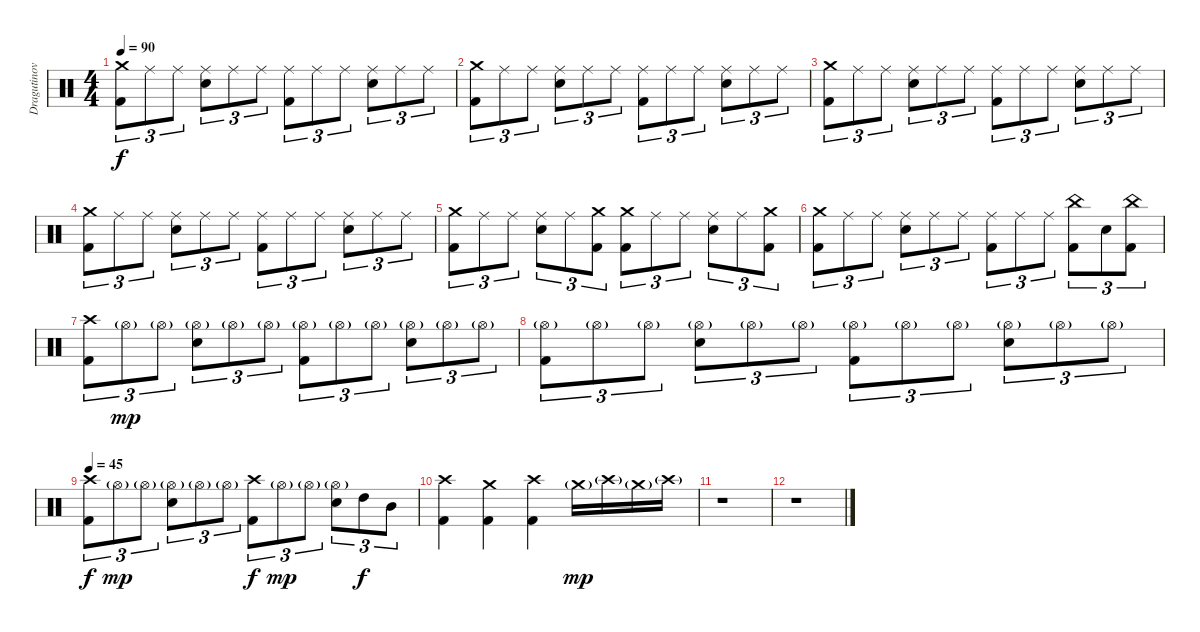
\track ("Dragutinovic" "Dragutinov") {instrument percussion}
\staff {score}
\articulation defaults
\ts (4 4)
\tempo 90
\clef neutral
\ks c
("Crash medium (hit)" "Kick (hit) 2").8{tu (3 2) dy f} "Ride (middle)".8{tu (3 2)} "Ride (middle)".8{tu (3 2)} ("Ride (middle)" "Electric Snare (hit)").8{tu (3 2)} "Ride (middle)".8{tu (3 2)} "Ride (middle)".8{tu (3 2)} ("Ride (middle)" "Kick (hit) 2").8{tu (3 2)} "Ride (middle)".8{tu (3 2)} "Ride (middle)".8{tu (3 2)} ("Ride (middle)" "Electric Snare (hit)").8{tu (3 2)} "Ride (middle)".8{tu (3 2)} "Ride (middle)".8{tu (3 2)} |
("Crash medium (hit)" "Kick (hit) 2").8{tu (3 2)} "Ride (middle)".8{tu (3 2)} "Ride (middle)".8{tu (3 2)} ("Ride (middle)" "Electric Snare (hit)").8{tu (3 2)} "Ride (middle)".8{tu (3 2)} "Ride (middle)".8{tu (3 2)} ("Ride (middle)" "Kick (hit) 2").8{tu (3 2)} "Ride (middle)".8{tu (3 2)} "Ride (middle)".8{tu (3 2)} ("Ride (middle)" "Electric Snare (hit)").8{tu (3 2)} "Ride (middle)".8{tu (3 2)} "Ride (middle)".8{tu (3 2)} |
("Crash medium (hit)" "Kick (hit) 2").8{tu (3 2)} "Ride (middle)".8{tu (3 2)} "Ride (middle)".8{tu (3 2)} ("Ride (middle)" "Electric Snare (hit)").8{tu (3 2)} "Ride (middle)".8{tu (3 2)} "Ride (middle)".8{tu (3 2)} ("Ride (middle)" "Kick (hit) 2").8{tu (3 2)} "Ride (middle)".8{tu (3 2)} "Ride (middle)".8{tu (3 2)} ("Ride (middle)" "Electric Snare (hit)").8{tu (3 2)} "Ride (middle)".8{tu (3 2)} "Ride (middle)".8{tu (3 2)} |
("Crash medium (hit)" "Kick (hit) 2").8{tu (3 2)} "Ride (middle)".8{tu (3 2)} "Ride (middle)".8{tu (3 2)} ("Ride (middle)" "Electric Snare (hit)").8{tu (3 2)} "Ride (middle)".8{tu (3 2)} "Ride (middle)".8{tu (3 2)} ("Ride (middle)" "Kick (hit) 2").8{tu (3 2)} "Ride (middle)".8{tu (3 2)} "Ride (middle)".8{tu (3 2)} ("Ride (middle)" "Electric Snare (hit)").8{tu (3 2)} "Ride (middle)".8{tu (3 2)} "Ride (middle)".8{tu (3 2)} |
("Crash medium (hit)" "Kick (hit) 2").8{tu (3 2)} "Ride (middle)".8{tu (3 2)} "Ride (middle)".8{tu (3 2)} ("Ride (middle)" "Electric Snare (hit)").8{tu (3 2)} "Ride (middle)".8{tu (3 2)} ("Crash medium (hit)" "Kick (hit) 2").8{tu (3 2)} ("Crash medium (hit)" "Kick (hit) 2").8{tu (3 2)} "Ride (middle)".8{tu (3 2)} "Ride (middle)".8{tu (3 2)} ("Ride (middle)" "Electric Snare (hit)").8{tu (3 2)} "Ride (middle)".8{tu (3 2)} ("Crash medium (hit)" "Kick (hit) 2").8{tu (3 2)} |
("Crash medium (hit)" "Kick (hit) 2").8{tu (3 2)} "Ride (middle)".8{tu (3 2)} "Ride (middle)".8{tu (3 2)} ("Ride (middle)" "Electric Snare (hit)").8{tu (3 2)} "Ride (middle)".8{tu (3 2)} "Ride (middle)".8{tu (3 2)} ("Ride (middle)" "Kick (hit) 2").8{tu (3 2)} "Ride (middle)".8{tu (3 2)} "Ride (middle)".8{tu (3 2)} ("China (hit)" "Kick (hit) 2").8{tu (3 2)} "Electric Snare (hit)".8{tu (3 2)} ("China (hit)" "Kick (hit) 2").8{tu (3 2)} |
("Crash high (hit)" "Kick (hit) 2").8{tu (3 2)} "Hi-Hat (open)"{g}.8{tu (3 2) dy mp} "Hi-Hat (open)"{g}.8{tu (3 2)} ("Hi-Hat (open)"{g} "Electric Snare (hit)").8{tu (3 2)} "Hi-Hat (open)"{g}.8{tu (3 2)} "Hi-Hat (open)"{g}.8{tu (3 2)} ("Hi-Hat (open)"{g} "Kick (hit) 2").8{tu (3 2)} "Hi-Hat (open)"{g}.8{tu (3 2)} "Hi-Hat (open)"{g}.8{tu (3 2)} ("Hi-Hat (open)"{g} "Electric Snare (hit)").8{tu (3 2)} "Hi-Hat (open)"{g}.8{tu (3 2)} "Hi-Hat (open)"{g}.8{tu (3 2)} |
("Hi-Hat (open)"{g} "Kick (hit) 2").8{tu (3 2)} "Hi-Hat (open)"{g}.8{tu (3 2)} "Hi-Hat (open)"{g}.8{tu (3 2)} ("Hi-Hat (open)"{g} "Electric Snare (hit)").8{tu (3 2)} "Hi-Hat (open)"{g}.8{tu (3 2)} "Hi-Hat (open)"{g}.8{tu (3 2)} ("Hi-Hat (open)"{g} "Kick (hit) 2").8{tu (3 2)} "Hi-Hat (open)"{g}.8{tu (3 2)} "Hi-Hat (open)"{g}.8{tu (3 2)} ("Hi-Hat (open)"{g} "Electric Snare (hit)").8{tu (3 2)} "Hi-Hat (open)"{g}.8{tu (3 2)} "Hi-Hat (open)"{g}.8{tu (3 2)} |
\tempo 45
("Crash high (hit)" "Kick (hit) 2").8{tu (3 2) dy f} "Hi-Hat (open)"{g}.8{tu (3 2) dy mp} "Hi-Hat (open)"{g}.8{tu (3 2)} ("Hi-Hat (open)"{g} "Electric Snare (hit)").8{tu (3 2)} "Hi-Hat (open)"{g}.8{tu (3 2)} "Hi-Hat (open)"{g}.8{tu (3 2)} ("Crash high (hit)" "Kick (hit) 2").8{tu (3 2) dy f} "Hi-Hat (open)"{g}.8{tu (3 2) dy mp} "Hi-Hat (open)"{g}.8{tu (3 2)} ("Hi-Hat (open)"{g} "Electric Snare (hit)").8{tu (3 2)} "High Tom (hit)".8{tu (3 2) dy f} "Mid Tom (hit)".8{tu (3 2)} |
("Crash high (hit)" "Kick (hit) 2").4 ("Crash medium (hit)" "Kick (hit) 2").4 ("Crash high (hit)" "Kick (hit) 2").4 "Crash medium (hit)"{g}.16{dy mp volume 5} "Crash high (hit)"{g}.16 "Crash medium (hit)"{g}.16 "Crash high (hit)"{g}.16 |
r.1 |
r.1
